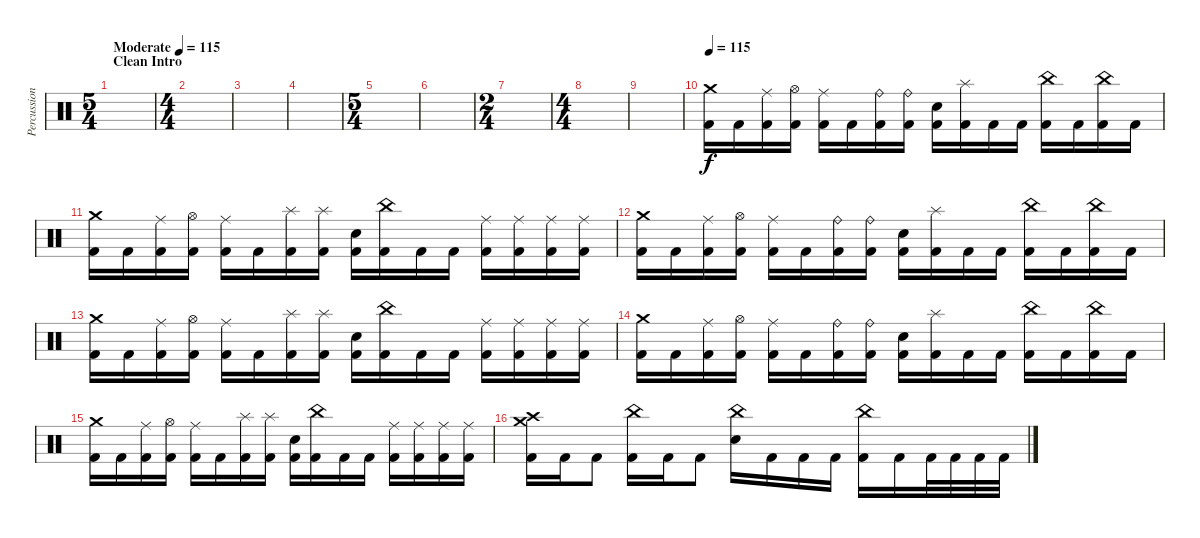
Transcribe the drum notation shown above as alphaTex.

\track ("Percussion" "Percussion") {instrument percussion}
\staff {score}
\articulation defaults
\ts (5 4)
\section ("" "Clean Intro")
\tempo (115 "Moderate")
\tempo 70
\tempo (115 "Moderate")
\clef neutral
\ks c
|
\ts (4 4)
|
|
|
\ts (5 4)
|
|
\ts (2 4)
|
\ts (4 4)
|
|
\tempo 115
("Crash medium (hit)" "Kick (hit) 2").16 "Kick (hit) 2".16 ("Ride (middle)" "Kick (hit) 2").16 ("Hi-Hat (open)" "Kick (hit) 2").16 ("Ride (middle)" "Kick (hit) 2").16 "Kick (hit) 2".16 ("Ride (bell)" "Kick (hit) 2").16 ("Ride (bell)" "Kick (hit) 2").16 ("Electric Snare (hit)" "Kick (hit) 2").16 ("Splash (hit)" "Kick (hit) 2").16 "Kick (hit) 2".16 "Kick (hit) 2".16 ("China (hit)" "Kick (hit) 2").16 "Kick (hit) 2".16 ("China (hit)" "Kick (hit) 2").16 "Kick (hit) 2".16 |
("Crash medium (hit)" "Kick (hit) 2").16 "Kick (hit) 2".16 ("Ride (middle)" "Kick (hit) 2").16 ("Hi-Hat (open)" "Kick (hit) 2").16 ("Ride (middle)" "Kick (hit) 2").16 "Kick (hit) 2".16 ("Splash (hit)" "Kick (hit) 2").16 ("Splash (hit)" "Kick (hit) 2").16 ("Electric Snare (hit)" "Kick (hit) 2").16 ("China (hit)" "Kick (hit) 2").16 "Kick (hit) 2".16 "Kick (hit) 2".16 ("Ride (middle)" "Kick (hit) 2").16 ("Ride (middle)" "Kick (hit) 2").16 ("Ride (middle)" "Kick (hit) 2").16 ("Ride (middle)" "Kick (hit) 2").16 |
("Crash medium (hit)" "Kick (hit) 2").16 "Kick (hit) 2".16 ("Ride (middle)" "Kick (hit) 2").16 ("Hi-Hat (open)" "Kick (hit) 2").16 ("Ride (middle)" "Kick (hit) 2").16 "Kick (hit) 2".16 ("Ride (bell)" "Kick (hit) 2").16 ("Ride (bell)" "Kick (hit) 2").16 ("Electric Snare (hit)" "Kick (hit) 2").16 ("Splash (hit)" "Kick (hit) 2").16 "Kick (hit) 2".16 "Kick (hit) 2".16 ("China (hit)" "Kick (hit) 2").16 "Kick (hit) 2".16 ("China (hit)" "Kick (hit) 2").16 "Kick (hit) 2".16 |
("Crash medium (hit)" "Kick (hit) 2").16 "Kick (hit) 2".16 ("Ride (middle)" "Kick (hit) 2").16 ("Hi-Hat (open)" "Kick (hit) 2").16 ("Ride (middle)" "Kick (hit) 2").16 "Kick (hit) 2".16 ("Splash (hit)" "Kick (hit) 2").16 ("Splash (hit)" "Kick (hit) 2").16 ("Electric Snare (hit)" "Kick (hit) 2").16 ("China (hit)" "Kick (hit) 2").16 "Kick (hit) 2".16 "Kick (hit) 2".16 ("Ride (middle)" "Kick (hit) 2").16 ("Ride (middle)" "Kick (hit) 2").16 ("Ride (middle)" "Kick (hit) 2").16 ("Ride (middle)" "Kick (hit) 2").16 |
("Crash medium (hit)" "Kick (hit) 2").16 "Kick (hit) 2".16 ("Ride (middle)" "Kick (hit) 2").16 ("Hi-Hat (open)" "Kick (hit) 2").16 ("Ride (middle)" "Kick (hit) 2").16 "Kick (hit) 2".16 ("Ride (bell)" "Kick (hit) 2").16 ("Ride (bell)" "Kick (hit) 2").16 ("Electric Snare (hit)" "Kick (hit) 2").16 ("Splash (hit)" "Kick (hit) 2").16 "Kick (hit) 2".16 "Kick (hit) 2".16 ("China (hit)" "Kick (hit) 2").16 "Kick (hit) 2".16 ("China (hit)" "Kick (hit) 2").16 "Kick (hit) 2".16 |
("Crash medium (hit)" "Kick (hit) 2").16 "Kick (hit) 2".16 ("Ride (middle)" "Kick (hit) 2").16 ("Hi-Hat (open)" "Kick (hit) 2").16 ("Ride (middle)" "Kick (hit) 2").16 "Kick (hit) 2".16 ("Splash (hit)" "Kick (hit) 2").16 ("Splash (hit)" "Kick (hit) 2").16 ("Electric Snare (hit)" "Kick (hit) 2").16 ("China (hit)" "Kick (hit) 2").16 "Kick (hit) 2".16 "Kick (hit) 2".16 ("Ride (middle)" "Kick (hit) 2").16 ("Ride (middle)" "Kick (hit) 2").16 ("Ride (middle)" "Kick (hit) 2").16 ("Ride (middle)" "Kick (hit) 2").16 |
("Crash medium (hit)" "Crash high (hit)" "Kick (hit) 2").16 "Kick (hit) 2".16 "Kick (hit) 2".8 ("China (hit)" "Kick (hit) 2").16 "Kick (hit) 2".16 "Kick (hit) 2".8 ("China (hit)" "Electric Snare (hit)").16 "Kick (hit) 2".16 "Kick (hit) 2".16 "Kick (hit) 2".16 ("China (hit)" "Kick (hit) 2").16 "Kick (hit) 2".16 "Kick (hit) 2".32 "Kick (hit) 2".32 "Kick (hit) 2".32 "Kick (hit) 2".32
